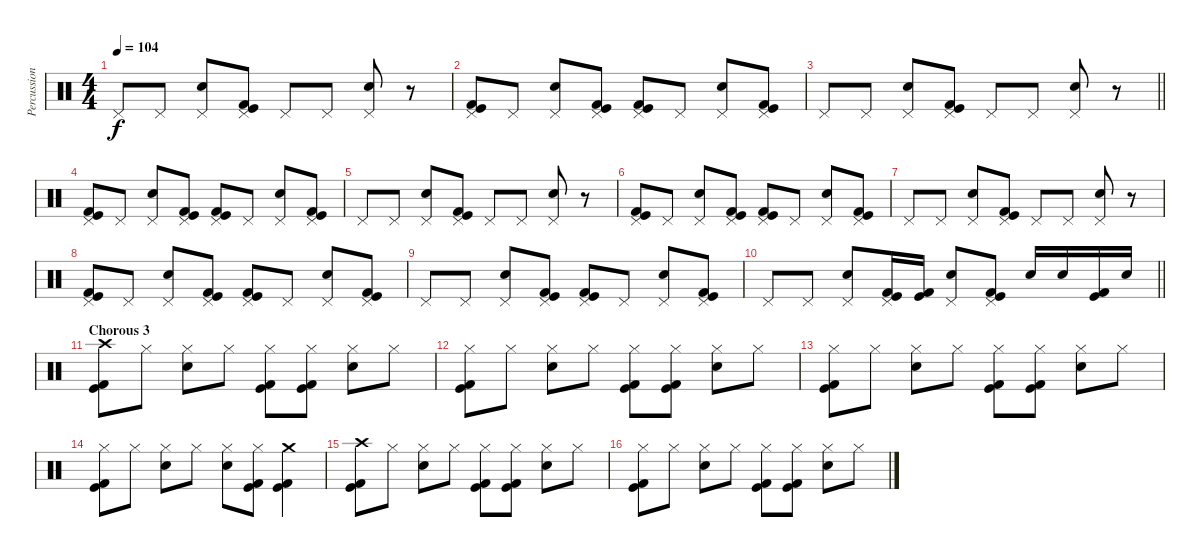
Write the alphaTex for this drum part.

\track ("Percussion" "Percussion") {instrument percussion}
\staff {score}
\articulation defaults
\ts (4 4)
\tempo 104
\clef neutral
\ks c "Pedal Hi-Hat (hit)".8{dy f} "Pedal Hi-Hat (hit)".8
("Pedal Hi-Hat (hit)" "Electric Snare (hit)").8 ("Pedal Hi-Hat (hit)" "Kick (hit)" "Kick (hit) 2").8 "Pedal Hi-Hat (hit)".8 "Pedal Hi-Hat (hit)".8 ("Pedal Hi-Hat (hit)" "Electric Snare (hit)").8 r.8 |
("Pedal Hi-Hat (hit)" "Kick (hit)" "Kick (hit) 2").8 "Pedal Hi-Hat (hit)".8 ("Pedal Hi-Hat (hit)" "Electric Snare (hit)").8 ("Pedal Hi-Hat (hit)" "Kick (hit)" "Kick (hit) 2").8 ("Pedal Hi-Hat (hit)" "Kick (hit)" "Kick (hit) 2").8 "Pedal Hi-Hat (hit)".8 ("Pedal Hi-Hat (hit)" "Electric Snare (hit)").8 ("Pedal Hi-Hat (hit)" "Kick (hit)" "Kick (hit) 2").8 |
\barLineRight lightlight "Pedal Hi-Hat (hit)".8 "Pedal Hi-Hat (hit)".8
("Pedal Hi-Hat (hit)" "Electric Snare (hit)").8 ("Pedal Hi-Hat (hit)" "Kick (hit)" "Kick (hit) 2").8 "Pedal Hi-Hat (hit)".8 "Pedal Hi-Hat (hit)".8 ("Pedal Hi-Hat (hit)" "Electric Snare (hit)").8 r.8 |
\section ("" "")
("Pedal Hi-Hat (hit)" "Kick (hit)" "Kick (hit) 2").8 "Pedal Hi-Hat (hit)".8 ("Pedal Hi-Hat (hit)" "Electric Snare (hit)").8 ("Pedal Hi-Hat (hit)" "Kick (hit)" "Kick (hit) 2").8 ("Pedal Hi-Hat (hit)" "Kick (hit)" "Kick (hit) 2").8 "Pedal Hi-Hat (hit)".8 ("Pedal Hi-Hat (hit)" "Electric Snare (hit)").8 ("Pedal Hi-Hat (hit)" "Kick (hit)" "Kick (hit) 2").8 |
"Pedal Hi-Hat (hit)".8 "Pedal Hi-Hat (hit)".8 ("Pedal Hi-Hat (hit)" "Electric Snare (hit)").8 ("Pedal Hi-Hat (hit)" "Kick (hit)" "Kick (hit) 2").8 "Pedal Hi-Hat (hit)".8 "Pedal Hi-Hat (hit)".8 ("Pedal Hi-Hat (hit)" "Electric Snare (hit)").8 r.8 |
("Pedal Hi-Hat (hit)" "Kick (hit)" "Kick (hit) 2").8 "Pedal Hi-Hat (hit)".8 ("Pedal Hi-Hat (hit)" "Electric Snare (hit)").8 ("Pedal Hi-Hat (hit)" "Kick (hit)" "Kick (hit) 2").8 ("Pedal Hi-Hat (hit)" "Kick (hit)" "Kick (hit) 2").8 "Pedal Hi-Hat (hit)".8 ("Pedal Hi-Hat (hit)" "Electric Snare (hit)").8 ("Pedal Hi-Hat (hit)" "Kick (hit)" "Kick (hit) 2").8 |
"Pedal Hi-Hat (hit)".8 "Pedal Hi-Hat (hit)".8 ("Pedal Hi-Hat (hit)" "Electric Snare (hit)").8 ("Pedal Hi-Hat (hit)" "Kick (hit)" "Kick (hit) 2").8 "Pedal Hi-Hat (hit)".8 "Pedal Hi-Hat (hit)".8 ("Pedal Hi-Hat (hit)" "Electric Snare (hit)").8 r.8 |
("Pedal Hi-Hat (hit)" "Kick (hit)" "Kick (hit) 2").8 "Pedal Hi-Hat (hit)".8 ("Pedal Hi-Hat (hit)" "Electric Snare (hit)").8 ("Pedal Hi-Hat (hit)" "Kick (hit)" "Kick (hit) 2").8 ("Pedal Hi-Hat (hit)" "Kick (hit)" "Kick (hit) 2").8 "Pedal Hi-Hat (hit)".8 ("Pedal Hi-Hat (hit)" "Electric Snare (hit)").8 ("Pedal Hi-Hat (hit)" "Kick (hit)" "Kick (hit) 2").8 |
"Pedal Hi-Hat (hit)".8 "Pedal Hi-Hat (hit)".8 ("Pedal Hi-Hat (hit)" "Electric Snare (hit)").8 ("Pedal Hi-Hat (hit)" "Kick (hit)" "Kick (hit) 2").8 ("Pedal Hi-Hat (hit)" "Kick (hit)" "Kick (hit) 2").8 "Pedal Hi-Hat (hit)".8 ("Pedal Hi-Hat (hit)" "Electric Snare (hit)").8 ("Pedal Hi-Hat (hit)" "Kick (hit)" "Kick (hit) 2").8 |
\barLineRight lightlight "Pedal Hi-Hat (hit)".8 "Pedal Hi-Hat (hit)".8
("Pedal Hi-Hat (hit)" "Electric Snare (hit)").8 ("Pedal Hi-Hat (hit)" "Kick (hit)" "Kick (hit) 2").16 ("Kick (hit)" "Kick (hit) 2").16 ("Pedal Hi-Hat (hit)" "Electric Snare (hit)").8 ("Pedal Hi-Hat (hit)" "Kick (hit)" "Kick (hit) 2").8 "Electric Snare (hit)".16 "Electric Snare (hit)".16 ("Kick (hit)" "Kick (hit) 2").16 "Electric Snare (hit)".16 |
\section ("" "Chorous 3")
("Crash high (hit)" "Kick (hit)" "Kick (hit) 2").8 "Hi-Hat (closed)".8 ("Hi-Hat (closed)" "Electric Snare (hit)").8 "Hi-Hat (closed)".8 ("Hi-Hat (closed)" "Kick (hit)" "Kick (hit) 2").8 ("Hi-Hat (closed)" "Kick (hit)" "Kick (hit) 2").8 ("Hi-Hat (closed)" "Electric Snare (hit)").8 "Hi-Hat (closed)".8 |
("Hi-Hat (closed)" "Kick (hit)" "Kick (hit) 2").8 "Hi-Hat (closed)".8 ("Hi-Hat (closed)" "Electric Snare (hit)").8 "Hi-Hat (closed)".8 ("Hi-Hat (closed)" "Kick (hit)" "Kick (hit) 2").8 ("Hi-Hat (closed)" "Kick (hit)" "Kick (hit) 2").8 ("Hi-Hat (closed)" "Electric Snare (hit)").8 "Hi-Hat (closed)".8 |
("Hi-Hat (closed)" "Kick (hit)" "Kick (hit) 2").8 "Hi-Hat (closed)".8 ("Hi-Hat (closed)" "Electric Snare (hit)").8 "Hi-Hat (closed)".8 ("Hi-Hat (closed)" "Kick (hit)" "Kick (hit) 2").8 ("Hi-Hat (closed)" "Kick (hit)" "Kick (hit) 2").8 ("Hi-Hat (closed)" "Electric Snare (hit)").8 "Hi-Hat (closed)".8 |
("Hi-Hat (closed)" "Kick (hit)" "Kick (hit) 2").8 "Hi-Hat (closed)".8 ("Hi-Hat (closed)" "Electric Snare (hit)").8 "Hi-Hat (closed)".8 ("Hi-Hat (closed)" "Electric Snare (hit)").8 ("Hi-Hat (closed)" "Kick (hit)" "Kick (hit) 2").8 ("Crash medium (hit)" "Kick (hit)" "Kick (hit) 2").4 |
("Crash high (hit)" "Kick (hit)" "Kick (hit) 2").8 "Hi-Hat (closed)".8 ("Hi-Hat (closed)" "Electric Snare (hit)").8 "Hi-Hat (closed)".8 ("Hi-Hat (closed)" "Kick (hit)" "Kick (hit) 2").8 ("Hi-Hat (closed)" "Kick (hit)" "Kick (hit) 2").8 ("Hi-Hat (closed)" "Electric Snare (hit)").8 "Hi-Hat (closed)".8 |
("Hi-Hat (closed)" "Kick (hit)" "Kick (hit) 2").8 "Hi-Hat (closed)".8 ("Hi-Hat (closed)" "Electric Snare (hit)").8 "Hi-Hat (closed)".8 ("Hi-Hat (closed)" "Kick (hit)" "Kick (hit) 2").8 ("Hi-Hat (closed)" "Kick (hit)" "Kick (hit) 2").8 ("Hi-Hat (closed)" "Electric Snare (hit)").8 "Hi-Hat (closed)".8
